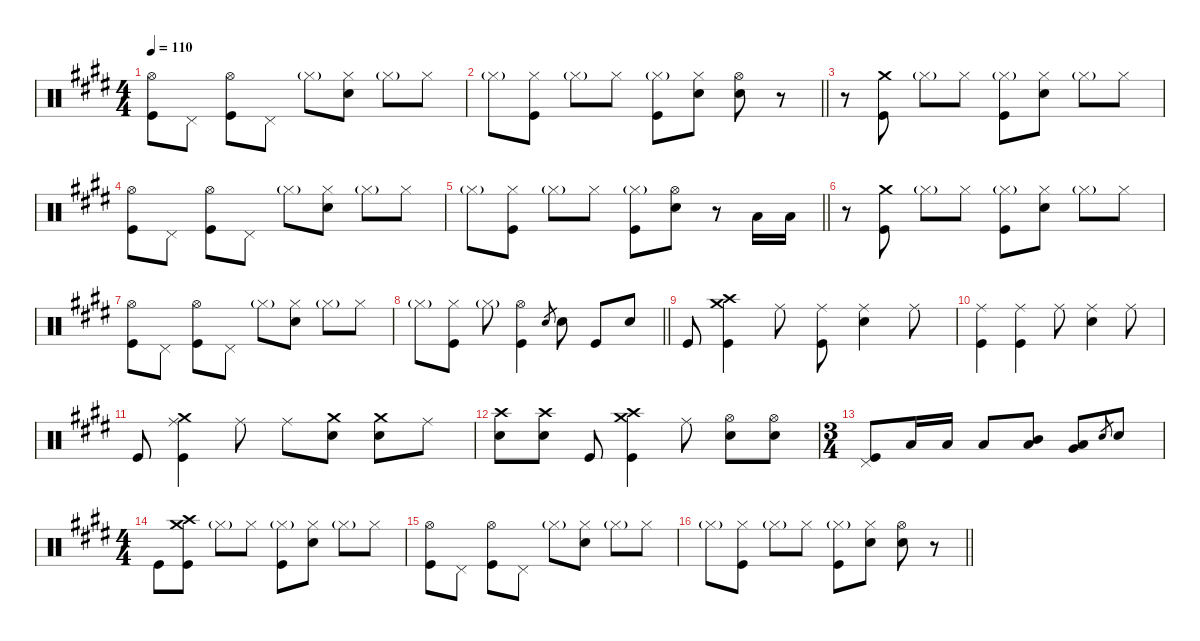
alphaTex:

\defaultSystemsLayout 4
\hideDynamics
\bracketExtendMode nobrackets
\singleTrackTrackNamePolicy hidden
\multiTrackTrackNamePolicy hidden
\firstSystemTrackNameMode fullname
\firstSystemTrackNameOrientation horizontal
\otherSystemsTrackNameOrientation horizontal
\track ("Aaron Harris" "drm.") {instrument percussion}
\staff {score}
\articulation defaults
\ts (4 4)
\tempo 110
\clef neutral
\ks c#minor
("Hi-Hat (open)"{acc forcenatural} "Kick (hit)"{acc forcenatural}).8{dy f beam Down} "Pedal Hi-Hat (hit)"{acc forcenatural}.8{beam Down} ("Hi-Hat (open)"{acc forcenatural} "Kick (hit)"{acc forcenatural}).8{beam Down} "Pedal Hi-Hat (hit)"{acc forcenatural}.8{beam Down} "Hi-Hat (closed)"{g acc forcenatural}.8{dy mf beam Down} ("Hi-Hat (closed)"{acc forcenatural} "Snare (hit) 2"{acc forcenatural}).8{dy f beam Down} "Hi-Hat (closed)"{g acc forcenatural}.8{dy mf beam Down} "Hi-Hat (closed)"{acc forcenatural}.8{dy f beam Down} |
\barLineRight lightlight "Hi-Hat (closed)"{g acc forcenatural}.8{dy mf beam Down}
("Hi-Hat (closed)"{acc forcenatural} "Kick (hit)"{acc forcenatural}).8{dy f beam Down} "Hi-Hat (closed)"{g acc forcenatural}.8{dy mf beam Down} "Hi-Hat (closed)"{acc forcenatural}.8{dy f beam Down} ("Hi-Hat (closed)"{g acc forcenatural} "Kick (hit)"{acc forcenatural}).8{beam Down} ("Hi-Hat (closed)"{acc forcenatural} "Snare (hit) 2"{acc forcenatural}).8{beam Down} ("Hi-Hat (open)"{acc forcenatural} "Snare (hit) 2"{acc forcenatural}).8{beam Down} r.8{beam Down} |
r.8{beam Down} ("Crash medium (hit)"{acc forcenatural} "Kick (hit)"{acc forcenatural}).8{beam Down} "Hi-Hat (closed)"{g acc forcenatural}.8{dy mf beam Down} "Hi-Hat (closed)"{acc forcenatural}.8{dy f beam Down} ("Hi-Hat (closed)"{g acc forcenatural} "Kick (hit)"{acc forcenatural}).8{beam Down} ("Hi-Hat (closed)"{acc forcenatural} "Snare (hit) 2"{acc forcenatural}).8{beam Down} "Hi-Hat (closed)"{g acc forcenatural}.8{dy mf beam Down} "Hi-Hat (closed)"{acc forcenatural}.8{dy f beam Down} |
("Hi-Hat (open)"{acc forcenatural} "Kick (hit)"{acc forcenatural}).8{beam Down} "Pedal Hi-Hat (hit)"{acc forcenatural}.8{beam Down} ("Hi-Hat (open)"{acc forcenatural} "Kick (hit)"{acc forcenatural}).8{beam Down} "Pedal Hi-Hat (hit)"{acc forcenatural}.8{beam Down} "Hi-Hat (closed)"{g acc forcenatural}.8{dy mf beam Down} ("Hi-Hat (closed)"{acc forcenatural} "Snare (hit) 2"{acc forcenatural}).8{dy f beam Down} "Hi-Hat (closed)"{g acc forcenatural}.8{dy mf beam Down} "Hi-Hat (closed)"{acc forcenatural}.8{dy f beam Down} |
\barLineRight lightlight "Hi-Hat (closed)"{g acc forcenatural}.8{dy mf beam Down}
("Hi-Hat (closed)"{acc forcenatural} "Kick (hit)"{acc forcenatural}).8{dy f beam Down} "Hi-Hat (closed)"{g acc forcenatural}.8{dy mf beam Down} "Hi-Hat (closed)"{acc forcenatural}.8{dy f beam Down} ("Hi-Hat (closed)"{g acc forcenatural} "Kick (hit)"{acc forcenatural}).8{beam Down} ("Hi-Hat (open)"{acc forcenatural} "Snare (hit) 2"{acc forcenatural}).8{beam Down} r.8{beam Down} "Low Tom (hit)"{acc forcenatural}.16{beam Up} "Low Tom (hit)"{acc forcenatural}.16{beam Up} |
r.8{beam Down} ("Crash medium (hit)"{acc forcenatural} "Kick (hit)"{acc forcenatural}).8{beam Down} "Hi-Hat (closed)"{g acc forcenatural}.8{dy mf beam Down} "Hi-Hat (closed)"{acc forcenatural}.8{dy f beam Down} ("Hi-Hat (closed)"{g acc forcenatural} "Kick (hit)"{acc forcenatural}).8{beam Down} ("Hi-Hat (closed)"{acc forcenatural} "Snare (hit) 2"{acc forcenatural}).8{beam Down} "Hi-Hat (closed)"{g acc forcenatural}.8{dy mf beam Down} "Hi-Hat (closed)"{acc forcenatural}.8{dy f beam Down} |
("Hi-Hat (open)"{acc forcenatural} "Kick (hit)"{acc forcenatural}).8{beam Down} "Pedal Hi-Hat (hit)"{acc forcenatural}.8{beam Down} ("Hi-Hat (open)"{acc forcenatural} "Kick (hit)"{acc forcenatural}).8{beam Down} "Pedal Hi-Hat (hit)"{acc forcenatural}.8{beam Down} "Hi-Hat (closed)"{g acc forcenatural}.8{dy mf beam Down} ("Hi-Hat (closed)"{acc forcenatural} "Snare (hit) 2"{acc forcenatural}).8{dy f beam Down} "Hi-Hat (closed)"{g acc forcenatural}.8{dy mf beam Down} "Hi-Hat (closed)"{acc forcenatural}.8{dy f beam Down} |
\barLineRight lightlight "Hi-Hat (closed)"{g acc forcenatural}.8{dy mf beam Down}
("Hi-Hat (closed)"{acc forcenatural} "Kick (hit)"{acc forcenatural}).8{dy f beam Down} "Hi-Hat (closed)"{g acc forcenatural}.8{dy mf beam Down} ("Hi-Hat (open)"{acc forcenatural} "Kick (hit)"{acc forcenatural}).4{dy f beam Down} "Electric Snare (hit)"{acc forcenatural}.8{gr beam Up} "Snare (hit) 2"{acc forcenatural}.8{beam Down} "Kick (hit)"{acc forcenatural}.8{beam Up} "Snare (hit) 2"{acc forcenatural}.8{beam Up} |
"Kick (hit)"{acc forcenatural}.8{beam Up} ("Crash medium (hit)"{acc forcenatural} "Crash high (hit)"{acc forcenatural} "Kick (hit)"{acc forcenatural}).4{beam Down} "Ride (middle)"{acc forcenatural}.8{beam Down} ("Ride (middle)"{acc forcenatural} "Kick (hit)"{acc forcenatural}).8{beam Down} ("Ride (middle)"{acc forcenatural} "Snare (hit) 2"{acc forcenatural}).4{beam Down} "Ride (middle)"{acc forcenatural}.8{beam Down} |
("Ride (middle)"{acc forcenatural} "Kick (hit)"{acc forcenatural}).4{beam Down} ("Ride (middle)"{acc forcenatural} "Kick (hit)"{acc forcenatural}).4{beam Down} "Ride (middle)"{acc forcenatural}.8{dy mp beam Down} ("Ride (middle)"{acc forcenatural} "Snare (hit) 2"{acc forcenatural}).4{dy f beam Down} "Ride (middle)"{acc forcenatural}.8{beam Down} |
"Kick (hit)"{acc forcenatural}.8{beam Up} ("Crash medium (hit)"{acc forcenatural} "Ride (middle)"{acc forcenatural} "Kick (hit)"{acc forcenatural}).4{beam Down} "Ride (middle)"{acc forcenatural}.8{beam Down} "Ride (middle)"{acc forcenatural}.8{beam Down} ("Crash medium (hit)"{acc forcenatural} "Snare (hit) 2"{acc forcenatural}).8{beam Down} ("Crash medium (hit)"{acc forcenatural} "Snare (hit) 2"{acc forcenatural}).8{beam Down} "Ride (middle)"{acc forcenatural}.8{beam Down} |
("Crash high (hit)"{acc forcenatural} "Snare (hit) 2"{acc forcenatural}).8{beam Down} ("Crash high (hit)"{acc forcenatural} "Snare (hit) 2"{acc forcenatural}).8{beam Down} "Kick (hit)"{acc forcenatural}.8{beam Up} ("Crash medium (hit)"{acc forcenatural} "Crash high (hit)"{acc forcenatural} "Kick (hit)"{acc forcenatural}).4{beam Down} "Ride (middle)"{acc forcenatural}.8{beam Down} ("Hi-Hat (open)"{acc forcenatural} "Snare (hit) 2"{acc forcenatural}).8{beam Down} ("Hi-Hat (open)"{acc forcenatural} "Snare (hit) 2"{acc forcenatural}).8{beam Down} |
\ts (3 4)
\beaming (8 2 2 2)
("Pedal Hi-Hat (hit)"{acc forcenatural} "Kick (hit)"{acc forcenatural}).8{beam Up} "Low Tom (hit)"{acc forcenatural}.16{beam Up} "Low Tom (hit)"{acc forcenatural}.16{beam Up} "Low Tom (hit)"{acc forcenatural}.8{beam Up} ("Mid Tom (hit)"{acc forcenatural} "Low Tom (hit)"{acc forcenatural}).8{beam Up} ("Low Tom (hit)"{acc forcenatural} "Very Low Tom (hit)"{acc forcenatural}).8{beam Up} "Electric Snare (hit)"{acc forcenatural}.8{gr dy mf beam Up} "Snare (hit) 2"{acc forcenatural}.8{dy f beam Up} |
\ts (4 4)
\beaming (8 2 2 2 2)
"Kick (hit)"{acc forcenatural}.8{beam Down} ("Crash medium (hit)"{acc forcenatural} "Crash high (hit)"{acc forcenatural} "Kick (hit)"{acc forcenatural}).8{beam Down} "Hi-Hat (closed)"{g acc forcenatural}.8{dy mf beam Down} "Hi-Hat (closed)"{acc forcenatural}.8{dy f beam Down} ("Hi-Hat (closed)"{g acc forcenatural} "Kick (hit)"{acc forcenatural}).8{beam Down} ("Hi-Hat (closed)"{acc forcenatural} "Snare (hit) 2"{acc forcenatural}).8{beam Down} "Hi-Hat (closed)"{g acc forcenatural}.8{dy mf beam Down} "Hi-Hat (closed)"{acc forcenatural}.8{dy f beam Down} |
("Hi-Hat (open)"{acc forcenatural} "Kick (hit)"{acc forcenatural}).8{beam Down} "Pedal Hi-Hat (hit)"{acc forcenatural}.8{beam Down} ("Hi-Hat (open)"{acc forcenatural} "Kick (hit)"{acc forcenatural}).8{beam Down} "Pedal Hi-Hat (hit)"{acc forcenatural}.8{beam Down} "Hi-Hat (closed)"{g acc forcenatural}.8{dy mf beam Down} ("Hi-Hat (closed)"{acc forcenatural} "Snare (hit) 2"{acc forcenatural}).8{dy f beam Down} "Hi-Hat (closed)"{g acc forcenatural}.8{dy mf beam Down} "Hi-Hat (closed)"{acc forcenatural}.8{dy f beam Down} |
\barLineRight lightlight "Hi-Hat (closed)"{g acc forcenatural}.8{dy mf beam Down}
("Hi-Hat (closed)"{acc forcenatural} "Kick (hit)"{acc forcenatural}).8{dy f beam Down} "Hi-Hat (closed)"{g acc forcenatural}.8{dy mf beam Down} "Hi-Hat (closed)"{acc forcenatural}.8{dy f beam Down} ("Hi-Hat (closed)"{g acc forcenatural} "Kick (hit)"{acc forcenatural}).8{beam Down} ("Hi-Hat (closed)"{acc forcenatural} "Snare (hit) 2"{acc forcenatural}).8{beam Down} ("Hi-Hat (open)"{acc forcenatural} "Snare (hit) 2"{acc forcenatural}).8{beam Down} r.8{beam Down}
